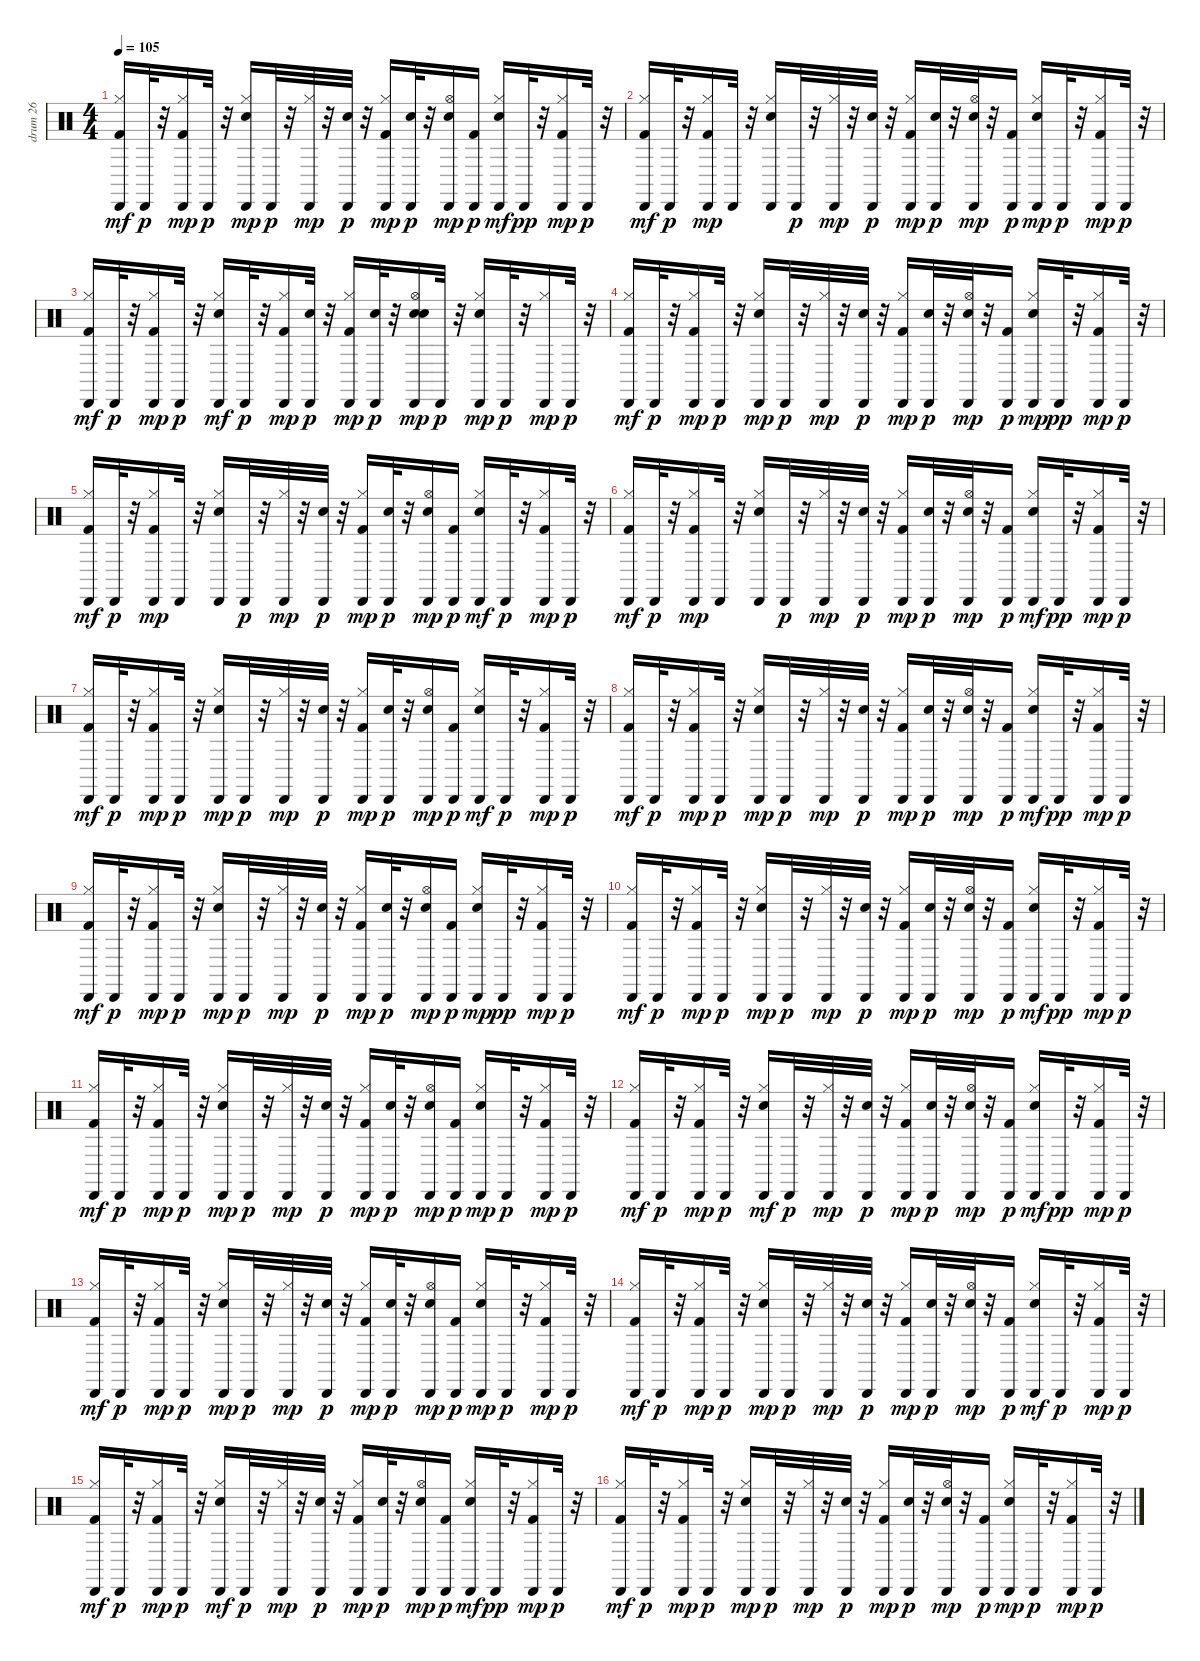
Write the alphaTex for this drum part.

\track ("drum 26" "drum 26") {instrument percussion}
\staff {score}
\articulation defaults
\ts (4 4)
\tempo 105
\clef neutral
\ks c
("Kick (hit) 2" "Hi-Hat (closed)" "Cabasa (hit)").16{dy mf} "Cabasa (hit)".32{dy p} r.32 ("Kick (hit) 2" "Hi-Hat (closed)" "Cabasa (hit)").16{dy mp} "Cabasa (hit)".32{dy p} r.32 ("Snare (hit) 2" "Hi-Hat (closed)" "Cabasa (hit)").16{dy mp} "Cabasa (hit)".32{dy p} r.32 ("Hi-Hat (closed)" "Cabasa (hit)").32{dy mp} r.32 ("Electric Snare (hit)" "Cabasa (hit)").32{dy p} r.32 ("Kick (hit) 2" "Hi-Hat (closed)" "Cabasa (hit)").16{dy mp} ("Electric Snare (hit)" "Cabasa (hit)").32{dy p} r.32 ("Electric Snare (hit)" "Hi-Hat (open)" "Cabasa (hit)").16{dy mp} ("Kick (hit) 2" "Cabasa (hit)").16{dy p} ("Snare (hit) 2" "Hi-Hat (closed)" "Cabasa (hit)").16{dy mf} "Cabasa (hit)".32{dy pp} r.32 ("Kick (hit) 2" "Hi-Hat (closed)" "Cabasa (hit)").16{dy mp} "Cabasa (hit)".32{dy p} r.32 |
("Kick (hit) 2" "Hi-Hat (closed)" "Cabasa (hit)").16{dy mf} "Cabasa (hit)".32{dy p} r.32 ("Kick (hit) 2" "Hi-Hat (closed)" "Cabasa (hit)").16{dy mp} "Cabasa (hit)".32 r.32 ("Snare (hit) 2" "Hi-Hat (closed)" "Cabasa (hit)").16 "Cabasa (hit)".32{dy p} r.32 ("Hi-Hat (closed)" "Cabasa (hit)").32{dy mp} r.32 ("Electric Snare (hit)" "Cabasa (hit)").32{dy p} r.32 ("Kick (hit) 2" "Hi-Hat (closed)" "Cabasa (hit)").16{dy mp} ("Electric Snare (hit)" "Cabasa (hit)").32{dy p} r.32 ("Electric Snare (hit)" "Hi-Hat (open)" "Cabasa (hit)").32{dy mp} r.32 ("Kick (hit) 2" "Cabasa (hit)").16{dy p} ("Snare (hit) 2" "Hi-Hat (closed)" "Cabasa (hit)").16{dy mp} "Cabasa (hit)".32{dy p} r.32 ("Kick (hit) 2" "Hi-Hat (closed)" "Cabasa (hit)").16{dy mp} "Cabasa (hit)".32{dy p} r.32 |
("Kick (hit) 2" "Hi-Hat (closed)" "Cabasa (hit)").16{dy mf} "Cabasa (hit)".32{dy p} r.32 ("Kick (hit) 2" "Hi-Hat (closed)" "Cabasa (hit)").16{dy mp} "Cabasa (hit)".32{dy p} r.32 ("Snare (hit) 2" "Hi-Hat (closed)" "Cabasa (hit)").16{dy mf} "Cabasa (hit)".32{dy p} r.32 ("Kick (hit) 2" "Hi-Hat (closed)" "Cabasa (hit)").16{dy mp} ("Electric Snare (hit)" "Cabasa (hit)").32{dy p} r.32 ("Kick (hit) 2" "Hi-Hat (closed)" "Cabasa (hit)").16{dy mp} ("Electric Snare (hit)" "Cabasa (hit)").32{dy p} r.32 ("Snare (hit) 2" "Electric Snare (hit)" "Hi-Hat (open)" "Cabasa (hit)").16{dy mp} "Cabasa (hit)".32{dy p} r.32 ("Snare (hit) 2" "Hi-Hat (closed)" "Cabasa (hit)").16{dy mp} "Cabasa (hit)".32{dy p} r.32 ("Hi-Hat (closed)" "Cabasa (hit)").16{dy mp} "Cabasa (hit)".32{dy p} r.32 |
("Kick (hit) 2" "Hi-Hat (closed)" "Cabasa (hit)").16{dy mf} "Cabasa (hit)".32{dy p} r.32 ("Kick (hit) 2" "Hi-Hat (closed)" "Cabasa (hit)").16{dy mp} "Cabasa (hit)".32{dy p} r.32 ("Snare (hit) 2" "Hi-Hat (closed)" "Cabasa (hit)").16{dy mp} "Cabasa (hit)".32{dy p} r.32 ("Hi-Hat (closed)" "Cabasa (hit)").32{dy mp} r.32 ("Electric Snare (hit)" "Cabasa (hit)").32{dy p} r.32 ("Kick (hit) 2" "Hi-Hat (closed)" "Cabasa (hit)").16{dy mp} ("Electric Snare (hit)" "Cabasa (hit)").32{dy p} r.32 ("Electric Snare (hit)" "Hi-Hat (open)" "Cabasa (hit)").32{dy mp} r.32 ("Kick (hit) 2" "Cabasa (hit)").16{dy p} ("Snare (hit) 2" "Hi-Hat (closed)" "Cabasa (hit)").16{dy mp} "Cabasa (hit)".32{dy pp} r.32 ("Kick (hit) 2" "Hi-Hat (closed)" "Cabasa (hit)").16{dy mp} "Cabasa (hit)".32{dy p} r.32 |
("Kick (hit) 2" "Hi-Hat (closed)" "Cabasa (hit)").16{dy mf} "Cabasa (hit)".32{dy p} r.32 ("Kick (hit) 2" "Hi-Hat (closed)" "Cabasa (hit)").16{dy mp} "Cabasa (hit)".32 r.32 ("Snare (hit) 2" "Hi-Hat (closed)" "Cabasa (hit)").16 "Cabasa (hit)".32{dy p} r.32 ("Hi-Hat (closed)" "Cabasa (hit)").32{dy mp} r.32 ("Electric Snare (hit)" "Cabasa (hit)").32{dy p} r.32 ("Kick (hit) 2" "Hi-Hat (closed)" "Cabasa (hit)").16{dy mp} ("Electric Snare (hit)" "Cabasa (hit)").32{dy p} r.32 ("Electric Snare (hit)" "Hi-Hat (open)" "Cabasa (hit)").16{dy mp} ("Kick (hit) 2" "Cabasa (hit)").16{dy p} ("Snare (hit) 2" "Hi-Hat (closed)" "Cabasa (hit)").16{dy mf} "Cabasa (hit)".32{dy p} r.32 ("Kick (hit) 2" "Hi-Hat (closed)" "Cabasa (hit)").16{dy mp} "Cabasa (hit)".32{dy p} r.32 |
("Kick (hit) 2" "Hi-Hat (closed)" "Cabasa (hit)").16{dy mf} "Cabasa (hit)".32{dy p} r.32 ("Kick (hit) 2" "Hi-Hat (closed)" "Cabasa (hit)").16{dy mp} "Cabasa (hit)".32 r.32 ("Snare (hit) 2" "Hi-Hat (closed)" "Cabasa (hit)").16 "Cabasa (hit)".32{dy p} r.32 ("Hi-Hat (closed)" "Cabasa (hit)").32{dy mp} r.32 ("Electric Snare (hit)" "Cabasa (hit)").32{dy p} r.32 ("Kick (hit) 2" "Hi-Hat (closed)" "Cabasa (hit)").16{dy mp} ("Electric Snare (hit)" "Cabasa (hit)").32{dy p} r.32 ("Electric Snare (hit)" "Hi-Hat (open)" "Cabasa (hit)").32{dy mp} r.32 ("Kick (hit) 2" "Cabasa (hit)").16{dy p} ("Snare (hit) 2" "Hi-Hat (closed)" "Cabasa (hit)").16{dy mf} "Cabasa (hit)".32{dy pp} r.32 ("Kick (hit) 2" "Hi-Hat (closed)" "Cabasa (hit)").16{dy mp} "Cabasa (hit)".32{dy p} r.32 |
("Kick (hit) 2" "Hi-Hat (closed)" "Cabasa (hit)").16{dy mf} "Cabasa (hit)".32{dy p} r.32 ("Kick (hit) 2" "Hi-Hat (closed)" "Cabasa (hit)").16{dy mp} "Cabasa (hit)".32{dy p} r.32 ("Snare (hit) 2" "Hi-Hat (closed)" "Cabasa (hit)").16{dy mp} "Cabasa (hit)".32{dy p} r.32 ("Hi-Hat (closed)" "Cabasa (hit)").32{dy mp} r.32 ("Electric Snare (hit)" "Cabasa (hit)").32{dy p} r.32 ("Kick (hit) 2" "Hi-Hat (closed)" "Cabasa (hit)").16{dy mp} ("Electric Snare (hit)" "Cabasa (hit)").32{dy p} r.32 ("Electric Snare (hit)" "Hi-Hat (open)" "Cabasa (hit)").16{dy mp} ("Kick (hit) 2" "Cabasa (hit)").16{dy p} ("Snare (hit) 2" "Hi-Hat (closed)" "Cabasa (hit)").16{dy mf} "Cabasa (hit)".32{dy p} r.32 ("Kick (hit) 2" "Hi-Hat (closed)" "Cabasa (hit)").16{dy mp} "Cabasa (hit)".32{dy p} r.32 |
("Kick (hit) 2" "Hi-Hat (closed)" "Cabasa (hit)").16{dy mf} "Cabasa (hit)".32{dy p} r.32 ("Kick (hit) 2" "Hi-Hat (closed)" "Cabasa (hit)").16{dy mp} "Cabasa (hit)".32{dy p} r.32 ("Snare (hit) 2" "Hi-Hat (closed)" "Cabasa (hit)").16{dy mp} "Cabasa (hit)".32{dy p} r.32 ("Hi-Hat (closed)" "Cabasa (hit)").32{dy mp} r.32 ("Electric Snare (hit)" "Cabasa (hit)").32{dy p} r.32 ("Kick (hit) 2" "Hi-Hat (closed)" "Cabasa (hit)").16{dy mp} ("Electric Snare (hit)" "Cabasa (hit)").32{dy p} r.32 ("Electric Snare (hit)" "Hi-Hat (open)" "Cabasa (hit)").32{dy mp} r.32 ("Kick (hit) 2" "Cabasa (hit)").16{dy p} ("Snare (hit) 2" "Hi-Hat (closed)" "Cabasa (hit)").16{dy mf} "Cabasa (hit)".32{dy pp} r.32 ("Kick (hit) 2" "Hi-Hat (closed)" "Cabasa (hit)").16{dy mp} "Cabasa (hit)".32{dy p} r.32 |
("Kick (hit) 2" "Hi-Hat (closed)" "Cabasa (hit)").16{dy mf} "Cabasa (hit)".32{dy p} r.32 ("Kick (hit) 2" "Hi-Hat (closed)" "Cabasa (hit)").16{dy mp} "Cabasa (hit)".32{dy p} r.32 ("Snare (hit) 2" "Hi-Hat (closed)" "Cabasa (hit)").16{dy mp} "Cabasa (hit)".32{dy p} r.32 ("Hi-Hat (closed)" "Cabasa (hit)").32{dy mp} r.32 ("Electric Snare (hit)" "Cabasa (hit)").32{dy p} r.32 ("Kick (hit) 2" "Hi-Hat (closed)" "Cabasa (hit)").16{dy mp} ("Electric Snare (hit)" "Cabasa (hit)").32{dy p} r.32 ("Electric Snare (hit)" "Hi-Hat (open)" "Cabasa (hit)").16{dy mp} ("Kick (hit) 2" "Cabasa (hit)").16{dy p} ("Snare (hit) 2" "Hi-Hat (closed)" "Cabasa (hit)").16{dy mp} "Cabasa (hit)".32{dy pp} r.32 ("Kick (hit) 2" "Hi-Hat (closed)" "Cabasa (hit)").16{dy mp} "Cabasa (hit)".32{dy p} r.32 |
("Kick (hit) 2" "Hi-Hat (closed)" "Cabasa (hit)").16{dy mf} "Cabasa (hit)".32{dy p} r.32 ("Kick (hit) 2" "Hi-Hat (closed)" "Cabasa (hit)").16{dy mp} "Cabasa (hit)".32{dy p} r.32 ("Snare (hit) 2" "Hi-Hat (closed)" "Cabasa (hit)").16{dy mp} "Cabasa (hit)".32{dy p} r.32 ("Hi-Hat (closed)" "Cabasa (hit)").32{dy mp} r.32 ("Electric Snare (hit)" "Cabasa (hit)").32{dy p} r.32 ("Kick (hit) 2" "Hi-Hat (closed)" "Cabasa (hit)").16{dy mp} ("Electric Snare (hit)" "Cabasa (hit)").32{dy p} r.32 ("Electric Snare (hit)" "Hi-Hat (open)" "Cabasa (hit)").32{dy mp} r.32 ("Kick (hit) 2" "Cabasa (hit)").16{dy p} ("Snare (hit) 2" "Hi-Hat (closed)" "Cabasa (hit)").16{dy mf} "Cabasa (hit)".32{dy pp} r.32 ("Kick (hit) 2" "Hi-Hat (closed)" "Cabasa (hit)").16{dy mp} "Cabasa (hit)".32{dy p} r.32 |
("Kick (hit) 2" "Hi-Hat (closed)" "Cabasa (hit)").16{dy mf} "Cabasa (hit)".32{dy p} r.32 ("Kick (hit) 2" "Hi-Hat (closed)" "Cabasa (hit)").16{dy mp} "Cabasa (hit)".32{dy p} r.32 ("Snare (hit) 2" "Hi-Hat (closed)" "Cabasa (hit)").16{dy mp} "Cabasa (hit)".32{dy p} r.32 ("Hi-Hat (closed)" "Cabasa (hit)").32{dy mp} r.32 ("Electric Snare (hit)" "Cabasa (hit)").32{dy p} r.32 ("Kick (hit) 2" "Hi-Hat (closed)" "Cabasa (hit)").16{dy mp} ("Electric Snare (hit)" "Cabasa (hit)").32{dy p} r.32 ("Electric Snare (hit)" "Hi-Hat (open)" "Cabasa (hit)").16{dy mp} ("Kick (hit) 2" "Cabasa (hit)").16{dy p} ("Snare (hit) 2" "Hi-Hat (closed)" "Cabasa (hit)").16{dy mp} "Cabasa (hit)".32{dy p} r.32 ("Kick (hit) 2" "Hi-Hat (closed)" "Cabasa (hit)").16{dy mp} "Cabasa (hit)".32{dy p} r.32 |
("Kick (hit) 2" "Hi-Hat (closed)" "Cabasa (hit)").16{dy mf} "Cabasa (hit)".32{dy p} r.32 ("Kick (hit) 2" "Hi-Hat (closed)" "Cabasa (hit)").16{dy mp} "Cabasa (hit)".32{dy p} r.32 ("Snare (hit) 2" "Hi-Hat (closed)" "Cabasa (hit)").16{dy mf} "Cabasa (hit)".32{dy p} r.32 ("Hi-Hat (closed)" "Cabasa (hit)").32{dy mp} r.32 ("Electric Snare (hit)" "Cabasa (hit)").32{dy p} r.32 ("Kick (hit) 2" "Hi-Hat (closed)" "Cabasa (hit)").16{dy mp} ("Electric Snare (hit)" "Cabasa (hit)").32{dy p} r.32 ("Electric Snare (hit)" "Hi-Hat (open)" "Cabasa (hit)").32{dy mp} r.32 ("Kick (hit) 2" "Cabasa (hit)").16{dy p} ("Snare (hit) 2" "Hi-Hat (closed)" "Cabasa (hit)").16{dy mf} "Cabasa (hit)".32{dy pp} r.32 ("Kick (hit) 2" "Hi-Hat (closed)" "Cabasa (hit)").16{dy mp} "Cabasa (hit)".32{dy p} r.32 |
("Kick (hit) 2" "Hi-Hat (closed)" "Cabasa (hit)").16{dy mf} "Cabasa (hit)".32{dy p} r.32 ("Kick (hit) 2" "Hi-Hat (closed)" "Cabasa (hit)").16{dy mp} "Cabasa (hit)".32{dy p} r.32 ("Snare (hit) 2" "Hi-Hat (closed)" "Cabasa (hit)").16{dy mp} "Cabasa (hit)".32{dy p} r.32 ("Hi-Hat (closed)" "Cabasa (hit)").32{dy mp} r.32 ("Electric Snare (hit)" "Cabasa (hit)").32{dy p} r.32 ("Kick (hit) 2" "Hi-Hat (closed)" "Cabasa (hit)").16{dy mp} ("Electric Snare (hit)" "Cabasa (hit)").32{dy p} r.32 ("Electric Snare (hit)" "Hi-Hat (open)" "Cabasa (hit)").16{dy mp} ("Kick (hit) 2" "Cabasa (hit)").16{dy p} ("Snare (hit) 2" "Hi-Hat (closed)" "Cabasa (hit)").16{dy mp} "Cabasa (hit)".32{dy p} r.32 ("Kick (hit) 2" "Hi-Hat (closed)" "Cabasa (hit)").16{dy mp} "Cabasa (hit)".32{dy p} r.32 |
("Kick (hit) 2" "Hi-Hat (closed)" "Cabasa (hit)").16{dy mf} "Cabasa (hit)".32{dy p} r.32 ("Kick (hit) 2" "Hi-Hat (closed)" "Cabasa (hit)").16{dy mp} "Cabasa (hit)".32{dy p} r.32 ("Snare (hit) 2" "Hi-Hat (closed)" "Cabasa (hit)").16{dy mp} "Cabasa (hit)".32{dy p} r.32 ("Hi-Hat (closed)" "Cabasa (hit)").32{dy mp} r.32 ("Electric Snare (hit)" "Cabasa (hit)").32{dy p} r.32 ("Kick (hit) 2" "Hi-Hat (closed)" "Cabasa (hit)").16{dy mp} ("Electric Snare (hit)" "Cabasa (hit)").32{dy p} r.32 ("Electric Snare (hit)" "Hi-Hat (open)" "Cabasa (hit)").32{dy mp} r.32 ("Kick (hit) 2" "Cabasa (hit)").16{dy p} ("Snare (hit) 2" "Hi-Hat (closed)" "Cabasa (hit)").16{dy mf} "Cabasa (hit)".32{dy p} r.32 ("Kick (hit) 2" "Hi-Hat (closed)" "Cabasa (hit)").16{dy mp} "Cabasa (hit)".32{dy p} r.32 |
("Kick (hit) 2" "Hi-Hat (closed)" "Cabasa (hit)").16{dy mf} "Cabasa (hit)".32{dy p} r.32 ("Kick (hit) 2" "Hi-Hat (closed)" "Cabasa (hit)").16{dy mp} "Cabasa (hit)".32{dy p} r.32 ("Snare (hit) 2" "Hi-Hat (closed)" "Cabasa (hit)").16{dy mf} "Cabasa (hit)".32{dy p} r.32 ("Hi-Hat (closed)" "Cabasa (hit)").32{dy mp} r.32 ("Electric Snare (hit)" "Cabasa (hit)").32{dy p} r.32 ("Kick (hit) 2" "Hi-Hat (closed)" "Cabasa (hit)").16{dy mp} ("Electric Snare (hit)" "Cabasa (hit)").32{dy p} r.32 ("Electric Snare (hit)" "Hi-Hat (open)" "Cabasa (hit)").16{dy mp} ("Kick (hit) 2" "Cabasa (hit)").16{dy p} ("Snare (hit) 2" "Hi-Hat (closed)" "Cabasa (hit)").16{dy mf} "Cabasa (hit)".32{dy pp} r.32 ("Kick (hit) 2" "Hi-Hat (closed)" "Cabasa (hit)").16{dy mp} "Cabasa (hit)".32{dy p} r.32 |
("Kick (hit) 2" "Hi-Hat (closed)" "Cabasa (hit)").16{dy mf} "Cabasa (hit)".32{dy p} r.32 ("Kick (hit) 2" "Hi-Hat (closed)" "Cabasa (hit)").16{dy mp} "Cabasa (hit)".32{dy p} r.32 ("Snare (hit) 2" "Hi-Hat (closed)" "Cabasa (hit)").16{dy mp} "Cabasa (hit)".32{dy p} r.32 ("Hi-Hat (closed)" "Cabasa (hit)").32{dy mp} r.32 ("Electric Snare (hit)" "Cabasa (hit)").32{dy p} r.32 ("Kick (hit) 2" "Hi-Hat (closed)" "Cabasa (hit)").16{dy mp} ("Electric Snare (hit)" "Cabasa (hit)").32{dy p} r.32 ("Electric Snare (hit)" "Hi-Hat (open)" "Cabasa (hit)").32{dy mp} r.32 ("Kick (hit) 2" "Cabasa (hit)").16{dy p} ("Snare (hit) 2" "Hi-Hat (closed)" "Cabasa (hit)").16{dy mp} "Cabasa (hit)".32{dy p} r.32 ("Kick (hit) 2" "Hi-Hat (closed)" "Cabasa (hit)").16{dy mp} "Cabasa (hit)".32{dy p} r.32
